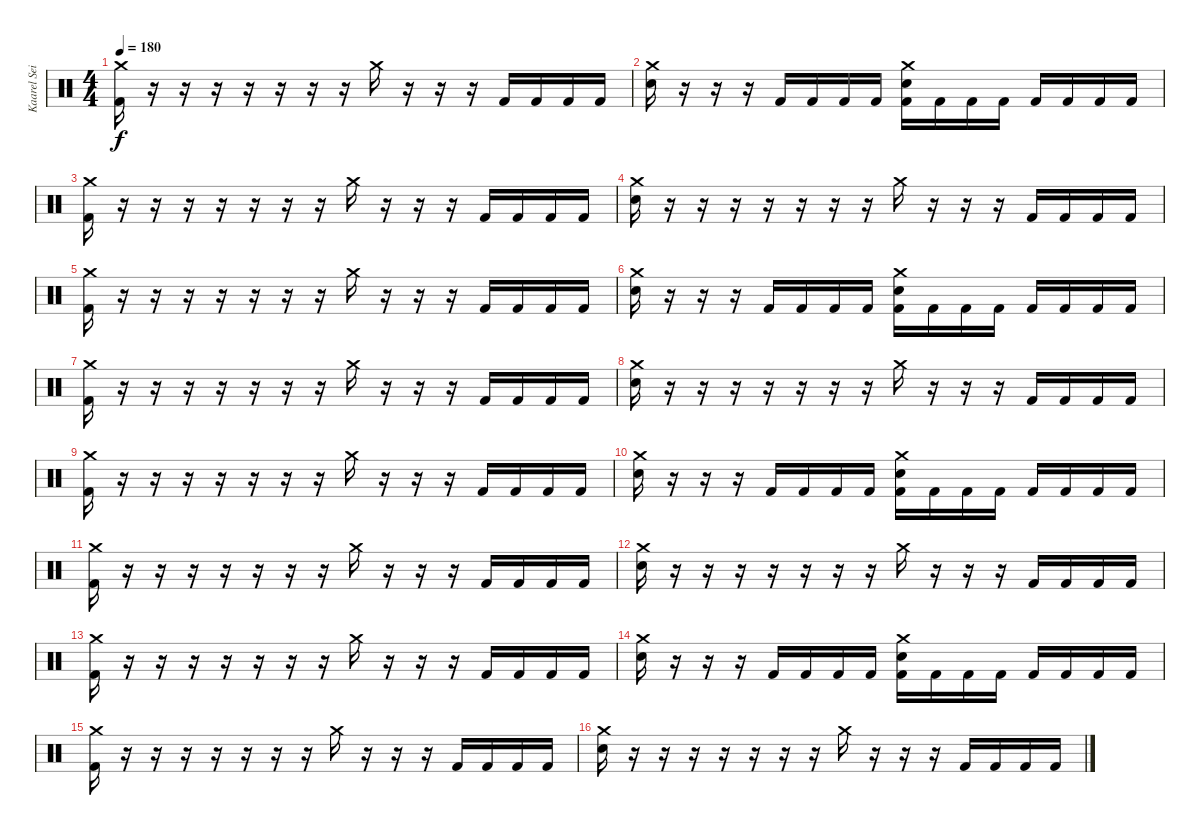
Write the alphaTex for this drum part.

\track ("Kaarel Sein" "Kaarel Sei") {instrument percussion}
\staff {score}
\articulation defaults
\ts (4 4)
\tempo 180
\clef neutral
\ks c
("Crash medium (hit)" "Kick (hit) 2").16{dy f} r.16 r.16 r.16 r.16 r.16 r.16 r.16 "Crash medium (hit)".16 r.16 r.16 r.16 "Kick (hit) 2".16 "Kick (hit) 2".16 "Kick (hit) 2".16 "Kick (hit) 2".16 |
("Crash medium (hit)" "Electric Snare (hit)").16 r.16 r.16 r.16 "Kick (hit) 2".16 "Kick (hit) 2".16 "Kick (hit) 2".16 "Kick (hit) 2".16 ("Crash medium (hit)" "Electric Snare (hit)" "Kick (hit) 2").16 "Kick (hit) 2".16 "Kick (hit) 2".16 "Kick (hit) 2".16 "Kick (hit) 2".16 "Kick (hit) 2".16 "Kick (hit) 2".16 "Kick (hit) 2".16 |
("Crash medium (hit)" "Kick (hit) 2").16 r.16 r.16 r.16 r.16 r.16 r.16 r.16 "Crash medium (hit)".16 r.16 r.16 r.16 "Kick (hit) 2".16 "Kick (hit) 2".16 "Kick (hit) 2".16 "Kick (hit) 2".16 |
("Crash medium (hit)" "Electric Snare (hit)").16 r.16 r.16 r.16 r.16 r.16 r.16 r.16 "Crash medium (hit)".16 r.16 r.16 r.16 "Kick (hit) 2".16 "Kick (hit) 2".16 "Kick (hit) 2".16 "Kick (hit) 2".16 |
("Crash medium (hit)" "Kick (hit) 2").16 r.16 r.16 r.16 r.16 r.16 r.16 r.16 "Crash medium (hit)".16 r.16 r.16 r.16 "Kick (hit) 2".16 "Kick (hit) 2".16 "Kick (hit) 2".16 "Kick (hit) 2".16 |
("Crash medium (hit)" "Electric Snare (hit)").16 r.16 r.16 r.16 "Kick (hit) 2".16 "Kick (hit) 2".16 "Kick (hit) 2".16 "Kick (hit) 2".16 ("Crash medium (hit)" "Electric Snare (hit)" "Kick (hit) 2").16 "Kick (hit) 2".16 "Kick (hit) 2".16 "Kick (hit) 2".16 "Kick (hit) 2".16 "Kick (hit) 2".16 "Kick (hit) 2".16 "Kick (hit) 2".16 |
("Crash medium (hit)" "Kick (hit) 2").16 r.16 r.16 r.16 r.16 r.16 r.16 r.16 "Crash medium (hit)".16 r.16 r.16 r.16 "Kick (hit) 2".16 "Kick (hit) 2".16 "Kick (hit) 2".16 "Kick (hit) 2".16 |
("Crash medium (hit)" "Electric Snare (hit)").16 r.16 r.16 r.16 r.16 r.16 r.16 r.16 "Crash medium (hit)".16 r.16 r.16 r.16 "Kick (hit) 2".16 "Kick (hit) 2".16 "Kick (hit) 2".16 "Kick (hit) 2".16 |
("Crash medium (hit)" "Kick (hit) 2").16 r.16 r.16 r.16 r.16 r.16 r.16 r.16 "Crash medium (hit)".16 r.16 r.16 r.16 "Kick (hit) 2".16 "Kick (hit) 2".16 "Kick (hit) 2".16 "Kick (hit) 2".16 |
("Crash medium (hit)" "Electric Snare (hit)").16 r.16 r.16 r.16 "Kick (hit) 2".16 "Kick (hit) 2".16 "Kick (hit) 2".16 "Kick (hit) 2".16 ("Crash medium (hit)" "Electric Snare (hit)" "Kick (hit) 2").16 "Kick (hit) 2".16 "Kick (hit) 2".16 "Kick (hit) 2".16 "Kick (hit) 2".16 "Kick (hit) 2".16 "Kick (hit) 2".16 "Kick (hit) 2".16 |
("Crash medium (hit)" "Kick (hit) 2").16 r.16 r.16 r.16 r.16 r.16 r.16 r.16 "Crash medium (hit)".16 r.16 r.16 r.16 "Kick (hit) 2".16 "Kick (hit) 2".16 "Kick (hit) 2".16 "Kick (hit) 2".16 |
("Crash medium (hit)" "Electric Snare (hit)").16 r.16 r.16 r.16 r.16 r.16 r.16 r.16 "Crash medium (hit)".16 r.16 r.16 r.16 "Kick (hit) 2".16 "Kick (hit) 2".16 "Kick (hit) 2".16 "Kick (hit) 2".16 |
("Crash medium (hit)" "Kick (hit) 2").16 r.16 r.16 r.16 r.16 r.16 r.16 r.16 "Crash medium (hit)".16 r.16 r.16 r.16 "Kick (hit) 2".16 "Kick (hit) 2".16 "Kick (hit) 2".16 "Kick (hit) 2".16 |
("Crash medium (hit)" "Electric Snare (hit)").16 r.16 r.16 r.16 "Kick (hit) 2".16 "Kick (hit) 2".16 "Kick (hit) 2".16 "Kick (hit) 2".16 ("Crash medium (hit)" "Electric Snare (hit)" "Kick (hit) 2").16 "Kick (hit) 2".16 "Kick (hit) 2".16 "Kick (hit) 2".16 "Kick (hit) 2".16 "Kick (hit) 2".16 "Kick (hit) 2".16 "Kick (hit) 2".16 |
("Crash medium (hit)" "Kick (hit) 2").16 r.16 r.16 r.16 r.16 r.16 r.16 r.16 "Crash medium (hit)".16 r.16 r.16 r.16 "Kick (hit) 2".16 "Kick (hit) 2".16 "Kick (hit) 2".16 "Kick (hit) 2".16 |
("Crash medium (hit)" "Electric Snare (hit)").16 r.16 r.16 r.16 r.16 r.16 r.16 r.16 "Crash medium (hit)".16 r.16 r.16 r.16 "Kick (hit) 2".16 "Kick (hit) 2".16 "Kick (hit) 2".16 "Kick (hit) 2".16
